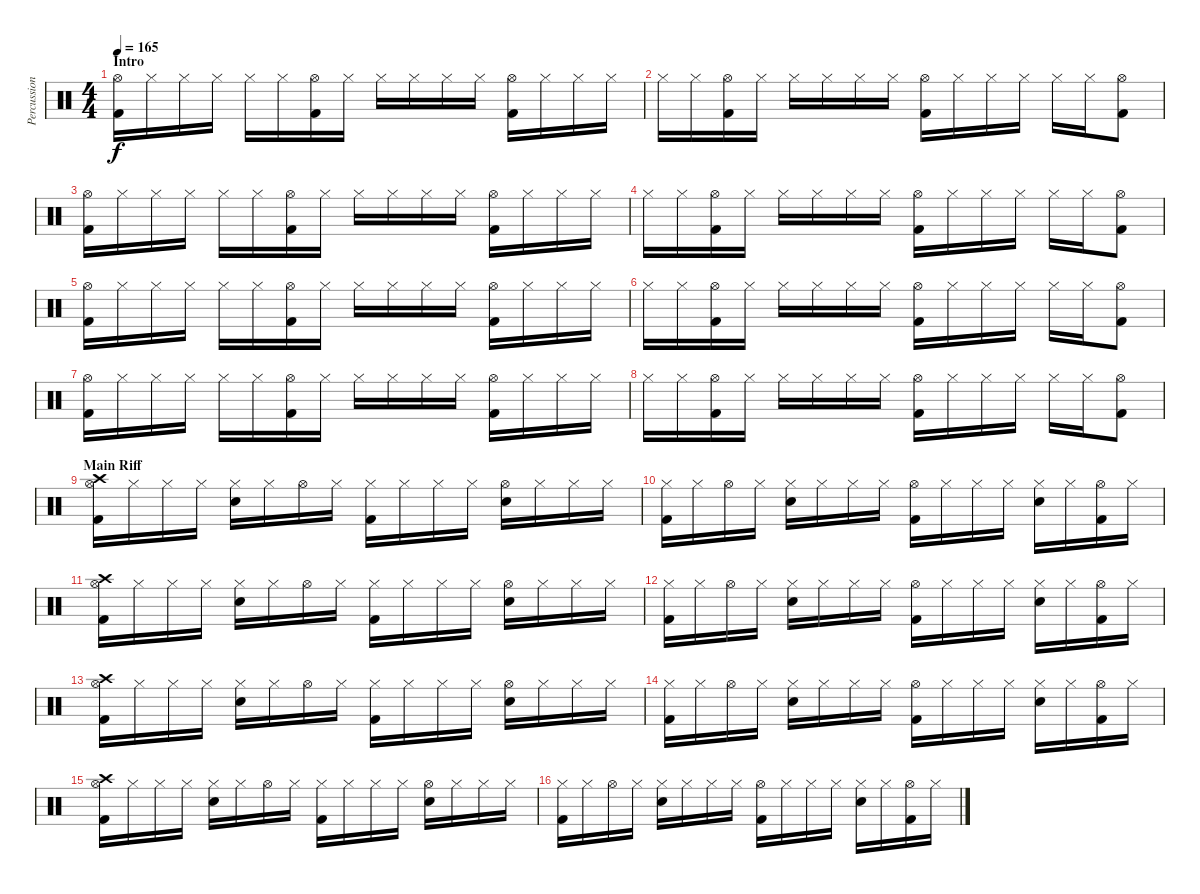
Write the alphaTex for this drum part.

\track ("Percussions" "Percussion") {instrument percussion}
\staff {score}
\articulation defaults
\ts (4 4)
\section ("" "Intro")
\tempo 165
\clef neutral
\ks c
("Hi-Hat (open)" "Kick (hit) 2").16{dy f} "Hi-Hat (closed)".16 "Hi-Hat (closed)".16 "Hi-Hat (closed)".16 "Hi-Hat (closed)".16 "Hi-Hat (closed)".16 ("Hi-Hat (open)" "Kick (hit) 2").16 "Hi-Hat (closed)".16 "Hi-Hat (closed)".16 "Hi-Hat (closed)".16 "Hi-Hat (closed)".16 "Hi-Hat (closed)".16 ("Hi-Hat (open)" "Kick (hit) 2").16 "Hi-Hat (closed)".16 "Hi-Hat (closed)".16 "Hi-Hat (closed)".16 |
"Hi-Hat (closed)".16 "Hi-Hat (closed)".16 ("Hi-Hat (open)" "Kick (hit) 2").16 "Hi-Hat (closed)".16 "Hi-Hat (closed)".16 "Hi-Hat (closed)".16 "Hi-Hat (closed)".16 "Hi-Hat (closed)".16 ("Hi-Hat (open)" "Kick (hit) 2").16 "Hi-Hat (closed)".16 "Hi-Hat (closed)".16 "Hi-Hat (closed)".16 "Hi-Hat (closed)".16 "Hi-Hat (closed)".16 ("Hi-Hat (open)" "Kick (hit) 2").8 |
("Hi-Hat (open)" "Kick (hit) 2").16 "Hi-Hat (closed)".16 "Hi-Hat (closed)".16 "Hi-Hat (closed)".16 "Hi-Hat (closed)".16 "Hi-Hat (closed)".16 ("Hi-Hat (open)" "Kick (hit) 2").16 "Hi-Hat (closed)".16 "Hi-Hat (closed)".16 "Hi-Hat (closed)".16 "Hi-Hat (closed)".16 "Hi-Hat (closed)".16 ("Hi-Hat (open)" "Kick (hit) 2").16 "Hi-Hat (closed)".16 "Hi-Hat (closed)".16 "Hi-Hat (closed)".16 |
"Hi-Hat (closed)".16 "Hi-Hat (closed)".16 ("Hi-Hat (open)" "Kick (hit) 2").16 "Hi-Hat (closed)".16 "Hi-Hat (closed)".16 "Hi-Hat (closed)".16 "Hi-Hat (closed)".16 "Hi-Hat (closed)".16 ("Hi-Hat (open)" "Kick (hit) 2").16 "Hi-Hat (closed)".16 "Hi-Hat (closed)".16 "Hi-Hat (closed)".16 "Hi-Hat (closed)".16 "Hi-Hat (closed)".16 ("Hi-Hat (open)" "Kick (hit) 2").8 |
("Hi-Hat (open)" "Kick (hit) 2").16 "Hi-Hat (closed)".16 "Hi-Hat (closed)".16 "Hi-Hat (closed)".16 "Hi-Hat (closed)".16 "Hi-Hat (closed)".16 ("Hi-Hat (open)" "Kick (hit) 2").16 "Hi-Hat (closed)".16 "Hi-Hat (closed)".16 "Hi-Hat (closed)".16 "Hi-Hat (closed)".16 "Hi-Hat (closed)".16 ("Hi-Hat (open)" "Kick (hit) 2").16 "Hi-Hat (closed)".16 "Hi-Hat (closed)".16 "Hi-Hat (closed)".16 |
"Hi-Hat (closed)".16 "Hi-Hat (closed)".16 ("Hi-Hat (open)" "Kick (hit) 2").16 "Hi-Hat (closed)".16 "Hi-Hat (closed)".16 "Hi-Hat (closed)".16 "Hi-Hat (closed)".16 "Hi-Hat (closed)".16 ("Hi-Hat (open)" "Kick (hit) 2").16 "Hi-Hat (closed)".16 "Hi-Hat (closed)".16 "Hi-Hat (closed)".16 "Hi-Hat (closed)".16 "Hi-Hat (closed)".16 ("Hi-Hat (open)" "Kick (hit) 2").8 |
("Hi-Hat (open)" "Kick (hit) 2").16 "Hi-Hat (closed)".16 "Hi-Hat (closed)".16 "Hi-Hat (closed)".16 "Hi-Hat (closed)".16 "Hi-Hat (closed)".16 ("Hi-Hat (open)" "Kick (hit) 2").16 "Hi-Hat (closed)".16 "Hi-Hat (closed)".16 "Hi-Hat (closed)".16 "Hi-Hat (closed)".16 "Hi-Hat (closed)".16 ("Hi-Hat (open)" "Kick (hit) 2").16 "Hi-Hat (closed)".16 "Hi-Hat (closed)".16 "Hi-Hat (closed)".16 |
"Hi-Hat (closed)".16 "Hi-Hat (closed)".16 ("Hi-Hat (open)" "Kick (hit) 2").16 "Hi-Hat (closed)".16 "Hi-Hat (closed)".16 "Hi-Hat (closed)".16 "Hi-Hat (closed)".16 "Hi-Hat (closed)".16 ("Hi-Hat (open)" "Kick (hit) 2").16 "Hi-Hat (closed)".16 "Hi-Hat (closed)".16 "Hi-Hat (closed)".16 "Hi-Hat (closed)".16 "Hi-Hat (closed)".16 ("Hi-Hat (open)" "Kick (hit) 2").8 |
\section ("" "Main Riff")
("Hi-Hat (open)" "Crash high (hit)" "Kick (hit) 2").16 "Hi-Hat (closed)".16 "Hi-Hat (closed)".16 "Hi-Hat (closed)".16 ("Hi-Hat (closed)" "Electric Snare (hit)").16 "Hi-Hat (closed)".16 "Hi-Hat (open)".16 "Hi-Hat (closed)".16 ("Hi-Hat (closed)" "Kick (hit) 2").16 "Hi-Hat (closed)".16 "Hi-Hat (closed)".16 "Hi-Hat (closed)".16 ("Hi-Hat (open)" "Electric Snare (hit)").16 "Hi-Hat (closed)".16 "Hi-Hat (closed)".16 "Hi-Hat (closed)".16 |
("Hi-Hat (closed)" "Kick (hit) 2").16 "Hi-Hat (closed)".16 "Hi-Hat (open)".16 "Hi-Hat (closed)".16 ("Hi-Hat (closed)" "Electric Snare (hit)").16 "Hi-Hat (closed)".16 "Hi-Hat (closed)".16 "Hi-Hat (closed)".16 ("Hi-Hat (open)" "Kick (hit) 2").16 "Hi-Hat (closed)".16 "Hi-Hat (closed)".16 "Hi-Hat (closed)".16 ("Hi-Hat (closed)" "Electric Snare (hit)").16 "Hi-Hat (closed)".16 ("Hi-Hat (open)" "Kick (hit) 2").16 "Hi-Hat (closed)".16 |
("Hi-Hat (open)" "Crash high (hit)" "Kick (hit) 2").16 "Hi-Hat (closed)".16 "Hi-Hat (closed)".16 "Hi-Hat (closed)".16 ("Hi-Hat (closed)" "Electric Snare (hit)").16 "Hi-Hat (closed)".16 "Hi-Hat (open)".16 "Hi-Hat (closed)".16 ("Hi-Hat (closed)" "Kick (hit) 2").16 "Hi-Hat (closed)".16 "Hi-Hat (closed)".16 "Hi-Hat (closed)".16 ("Hi-Hat (open)" "Electric Snare (hit)").16 "Hi-Hat (closed)".16 "Hi-Hat (closed)".16 "Hi-Hat (closed)".16 |
("Hi-Hat (closed)" "Kick (hit) 2").16 "Hi-Hat (closed)".16 "Hi-Hat (open)".16 "Hi-Hat (closed)".16 ("Hi-Hat (closed)" "Electric Snare (hit)").16 "Hi-Hat (closed)".16 "Hi-Hat (closed)".16 "Hi-Hat (closed)".16 ("Hi-Hat (open)" "Kick (hit) 2").16 "Hi-Hat (closed)".16 "Hi-Hat (closed)".16 "Hi-Hat (closed)".16 ("Hi-Hat (closed)" "Electric Snare (hit)").16 "Hi-Hat (closed)".16 ("Hi-Hat (open)" "Kick (hit) 2").16 "Hi-Hat (closed)".16 |
("Hi-Hat (open)" "Crash high (hit)" "Kick (hit) 2").16 "Hi-Hat (closed)".16 "Hi-Hat (closed)".16 "Hi-Hat (closed)".16 ("Hi-Hat (closed)" "Electric Snare (hit)").16 "Hi-Hat (closed)".16 "Hi-Hat (open)".16 "Hi-Hat (closed)".16 ("Hi-Hat (closed)" "Kick (hit) 2").16 "Hi-Hat (closed)".16 "Hi-Hat (closed)".16 "Hi-Hat (closed)".16 ("Hi-Hat (open)" "Electric Snare (hit)").16 "Hi-Hat (closed)".16 "Hi-Hat (closed)".16 "Hi-Hat (closed)".16 |
("Hi-Hat (closed)" "Kick (hit) 2").16 "Hi-Hat (closed)".16 "Hi-Hat (open)".16 "Hi-Hat (closed)".16 ("Hi-Hat (closed)" "Electric Snare (hit)").16 "Hi-Hat (closed)".16 "Hi-Hat (closed)".16 "Hi-Hat (closed)".16 ("Hi-Hat (open)" "Kick (hit) 2").16 "Hi-Hat (closed)".16 "Hi-Hat (closed)".16 "Hi-Hat (closed)".16 ("Hi-Hat (closed)" "Electric Snare (hit)").16 "Hi-Hat (closed)".16 ("Hi-Hat (open)" "Kick (hit) 2").16 "Hi-Hat (closed)".16 |
("Hi-Hat (open)" "Crash high (hit)" "Kick (hit) 2").16 "Hi-Hat (closed)".16 "Hi-Hat (closed)".16 "Hi-Hat (closed)".16 ("Hi-Hat (closed)" "Electric Snare (hit)").16 "Hi-Hat (closed)".16 "Hi-Hat (open)".16 "Hi-Hat (closed)".16 ("Hi-Hat (closed)" "Kick (hit) 2").16 "Hi-Hat (closed)".16 "Hi-Hat (closed)".16 "Hi-Hat (closed)".16 ("Hi-Hat (open)" "Electric Snare (hit)").16 "Hi-Hat (closed)".16 "Hi-Hat (closed)".16 "Hi-Hat (closed)".16 |
("Hi-Hat (closed)" "Kick (hit) 2").16 "Hi-Hat (closed)".16 "Hi-Hat (open)".16 "Hi-Hat (closed)".16 ("Hi-Hat (closed)" "Electric Snare (hit)").16 "Hi-Hat (closed)".16 "Hi-Hat (closed)".16 "Hi-Hat (closed)".16 ("Hi-Hat (open)" "Kick (hit) 2").16 "Hi-Hat (closed)".16 "Hi-Hat (closed)".16 "Hi-Hat (closed)".16 ("Hi-Hat (closed)" "Electric Snare (hit)").16 "Hi-Hat (closed)".16 ("Hi-Hat (open)" "Kick (hit) 2").16 "Hi-Hat (closed)".16
